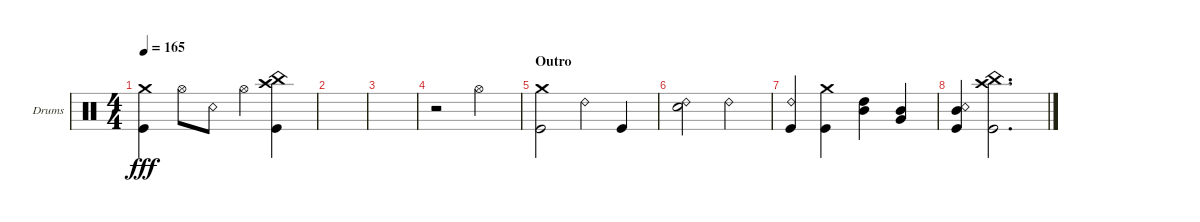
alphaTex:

\defaultSystemsLayout 4
\bracketExtendMode groupsimilarinstruments
\firstSystemTrackNameOrientation horizontal
\otherSystemsTrackNameOrientation horizontal
\track ("Drums" "Drums") {instrument percussion}
\staff {score}
\articulation defaults
\ts (4 4)
\tempo 165
\clef neutral
\ks c
("Kick (hit)" "Crash medium (hit)").4{dy fff} "Hi-Hat (open)".8 "Snare (rim shot)".8 "Hi-Hat (open)".4 ("Kick (hit)" "Crash high (hit)" "China (hit)").4 |
|
|
r.2 "Hi-Hat (open)".2 |
\section ("" "Outro")
("Crash medium (hit)" "Kick (hit)").2 "Ride (bell) 2".4 "Kick (hit)".4 |
("Snare (hit) 2" "Ride (bell) 2").2 "Ride (bell) 2".2 |
("Ride (bell) 2" "Kick (hit)").4 ("Crash medium (hit)" "Kick (hit)").4 ("High Tom (hit)" "Mid Tom (hit)").4 ("Mid Tom (hit)" "Very Low Tom (hit)").4 |
("Snare (rim shot)" "Mid Tom (hit)" "Kick (hit)").4 ("Kick (hit)" "Crash high (hit)" "China (hit)").2{d}
